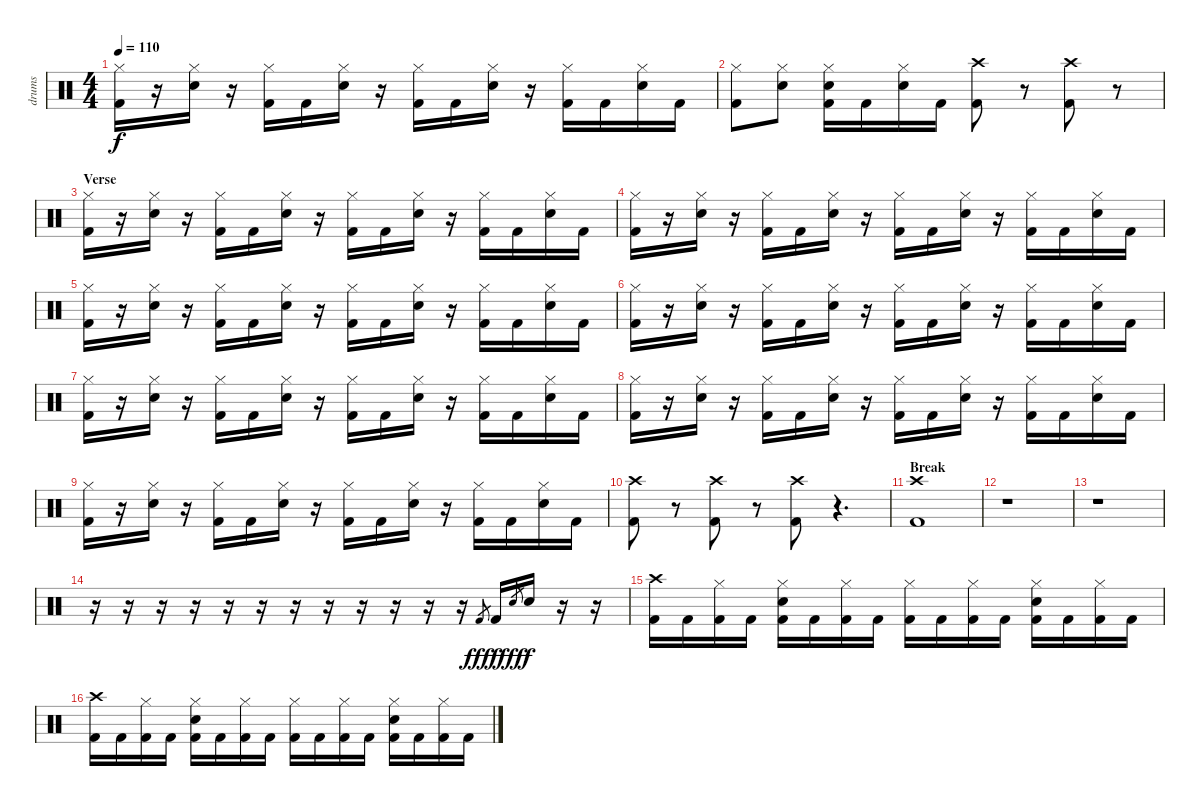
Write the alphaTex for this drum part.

\track ("drums" "drums") {instrument percussion}
\staff {score}
\articulation defaults
\ts (4 4)
\tempo 110
\clef neutral
\ks c
("Hi-Hat (closed)" "Kick (hit) 2").16{dy f} r.16 ("Hi-Hat (closed)" "Snare (hit) 2").16 r.16 ("Hi-Hat (closed)" "Kick (hit) 2").16 "Kick (hit) 2".16 ("Hi-Hat (closed)" "Snare (hit) 2").16 r.16 ("Hi-Hat (closed)" "Kick (hit) 2").16 "Kick (hit) 2".16 ("Hi-Hat (closed)" "Snare (hit) 2").16 r.16 ("Hi-Hat (closed)" "Kick (hit) 2").16 "Kick (hit) 2".16 ("Hi-Hat (closed)" "Snare (hit) 2").16 "Kick (hit) 2".16 |
("Hi-Hat (closed)" "Kick (hit) 2").8 ("Hi-Hat (closed)" "Snare (hit) 2").8 ("Hi-Hat (closed)" "Snare (hit)" "Kick (hit) 2").16 "Kick (hit) 2".16 ("Hi-Hat (closed)" "Snare (hit) 2").16 "Kick (hit) 2".16 ("Crash high (hit)" "Kick (hit) 2").8 r.8 ("Crash high (hit)" "Kick (hit) 2").8 r.8 |
\section ("" "Verse")
("Hi-Hat (closed)" "Kick (hit) 2").16 r.16 ("Hi-Hat (closed)" "Snare (hit) 2").16 r.16 ("Hi-Hat (closed)" "Kick (hit) 2").16 "Kick (hit) 2".16 ("Hi-Hat (closed)" "Snare (hit) 2").16 r.16 ("Hi-Hat (closed)" "Kick (hit) 2").16 "Kick (hit) 2".16 ("Hi-Hat (closed)" "Snare (hit) 2").16 r.16 ("Hi-Hat (closed)" "Kick (hit) 2").16 "Kick (hit) 2".16 ("Hi-Hat (closed)" "Snare (hit) 2").16 "Kick (hit) 2".16 |
("Hi-Hat (closed)" "Kick (hit) 2").16 r.16 ("Hi-Hat (closed)" "Snare (hit) 2").16 r.16 ("Hi-Hat (closed)" "Kick (hit) 2").16 "Kick (hit) 2".16 ("Hi-Hat (closed)" "Snare (hit) 2").16 r.16 ("Hi-Hat (closed)" "Kick (hit) 2").16 "Kick (hit) 2".16 ("Hi-Hat (closed)" "Snare (hit) 2").16 r.16 ("Hi-Hat (closed)" "Kick (hit) 2").16 "Kick (hit) 2".16 ("Hi-Hat (closed)" "Snare (hit) 2").16 "Kick (hit) 2".16 |
("Hi-Hat (closed)" "Kick (hit) 2").16 r.16 ("Hi-Hat (closed)" "Snare (hit) 2").16 r.16 ("Hi-Hat (closed)" "Kick (hit) 2").16 "Kick (hit) 2".16 ("Hi-Hat (closed)" "Snare (hit) 2").16 r.16 ("Hi-Hat (closed)" "Kick (hit) 2").16 "Kick (hit) 2".16 ("Hi-Hat (closed)" "Snare (hit) 2").16 r.16 ("Hi-Hat (closed)" "Kick (hit) 2").16 "Kick (hit) 2".16 ("Hi-Hat (closed)" "Snare (hit) 2").16 "Kick (hit) 2".16 |
("Hi-Hat (closed)" "Kick (hit) 2").16 r.16 ("Hi-Hat (closed)" "Snare (hit) 2").16 r.16 ("Hi-Hat (closed)" "Kick (hit) 2").16 "Kick (hit) 2".16 ("Hi-Hat (closed)" "Snare (hit) 2").16 r.16 ("Hi-Hat (closed)" "Kick (hit) 2").16 "Kick (hit) 2".16 ("Hi-Hat (closed)" "Snare (hit) 2").16 r.16 ("Hi-Hat (closed)" "Kick (hit) 2").16 "Kick (hit) 2".16 ("Hi-Hat (closed)" "Snare (hit) 2").16 "Kick (hit) 2".16 |
("Hi-Hat (closed)" "Kick (hit) 2").16 r.16 ("Hi-Hat (closed)" "Snare (hit) 2").16 r.16 ("Hi-Hat (closed)" "Kick (hit) 2").16 "Kick (hit) 2".16 ("Hi-Hat (closed)" "Snare (hit) 2").16 r.16 ("Hi-Hat (closed)" "Kick (hit) 2").16 "Kick (hit) 2".16 ("Hi-Hat (closed)" "Snare (hit) 2").16 r.16 ("Hi-Hat (closed)" "Kick (hit) 2").16 "Kick (hit) 2".16 ("Hi-Hat (closed)" "Snare (hit) 2").16 "Kick (hit) 2".16 |
("Hi-Hat (closed)" "Kick (hit) 2").16 r.16 ("Hi-Hat (closed)" "Snare (hit) 2").16 r.16 ("Hi-Hat (closed)" "Kick (hit) 2").16 "Kick (hit) 2".16 ("Hi-Hat (closed)" "Snare (hit) 2").16 r.16 ("Hi-Hat (closed)" "Kick (hit) 2").16 "Kick (hit) 2".16 ("Hi-Hat (closed)" "Snare (hit) 2").16 r.16 ("Hi-Hat (closed)" "Kick (hit) 2").16 "Kick (hit) 2".16 ("Hi-Hat (closed)" "Snare (hit) 2").16 "Kick (hit) 2".16 |
("Hi-Hat (closed)" "Kick (hit) 2").16 r.16 ("Hi-Hat (closed)" "Snare (hit) 2").16 r.16 ("Hi-Hat (closed)" "Kick (hit) 2").16 "Kick (hit) 2".16 ("Hi-Hat (closed)" "Snare (hit) 2").16 r.16 ("Hi-Hat (closed)" "Kick (hit) 2").16 "Kick (hit) 2".16 ("Hi-Hat (closed)" "Snare (hit) 2").16 r.16 ("Hi-Hat (closed)" "Kick (hit) 2").16 "Kick (hit) 2".16 ("Hi-Hat (closed)" "Snare (hit) 2").16 "Kick (hit) 2".16 |
("Crash high (hit)" "Kick (hit) 2").8 r.8 ("Crash high (hit)" "Kick (hit) 2").8 r.8 ("Crash high (hit)" "Kick (hit) 2").8 r.4{d} |
\section ("" "Break")
("Crash high (hit)" "Kick (hit) 2").1 |
r.1 |
r.1 |
r.16 r.16 r.16 r.16 r.16 r.16 r.16 r.16 r.16 r.16 r.16 r.16 "Kick (hit) 2".8{gr dy fff} "Kick (hit) 2".16{dy f} "Snare (hit) 2".8{gr dy fff} "Snare (hit) 2".16{dy f} r.16 r.16 |
("Crash high (hit)" "Kick (hit) 2").16 "Kick (hit) 2".16 ("Hi-Hat (closed)" "Kick (hit) 2").16 "Kick (hit) 2".16 ("Hi-Hat (closed)" "Snare (hit) 2" "Kick (hit) 2").16 "Kick (hit) 2".16 ("Hi-Hat (closed)" "Kick (hit) 2").16 "Kick (hit) 2".16 ("Hi-Hat (closed)" "Kick (hit) 2").16 "Kick (hit) 2".16 ("Hi-Hat (closed)" "Kick (hit) 2").16 "Kick (hit) 2".16 ("Hi-Hat (closed)" "Snare (hit) 2" "Kick (hit) 2").16 "Kick (hit) 2".16 ("Hi-Hat (closed)" "Kick (hit) 2").16 "Kick (hit) 2".16 |
("Crash high (hit)" "Kick (hit) 2").16 "Kick (hit) 2".16 ("Hi-Hat (closed)" "Kick (hit) 2").16 "Kick (hit) 2".16 ("Hi-Hat (closed)" "Snare (hit) 2" "Kick (hit) 2").16 "Kick (hit) 2".16 ("Hi-Hat (closed)" "Kick (hit) 2").16 "Kick (hit) 2".16 ("Hi-Hat (closed)" "Kick (hit) 2").16 "Kick (hit) 2".16 ("Hi-Hat (closed)" "Kick (hit) 2").16 "Kick (hit) 2".16 ("Hi-Hat (closed)" "Snare (hit) 2" "Kick (hit) 2").16 "Kick (hit) 2".16 ("Hi-Hat (closed)" "Kick (hit) 2").16 "Kick (hit) 2".16
